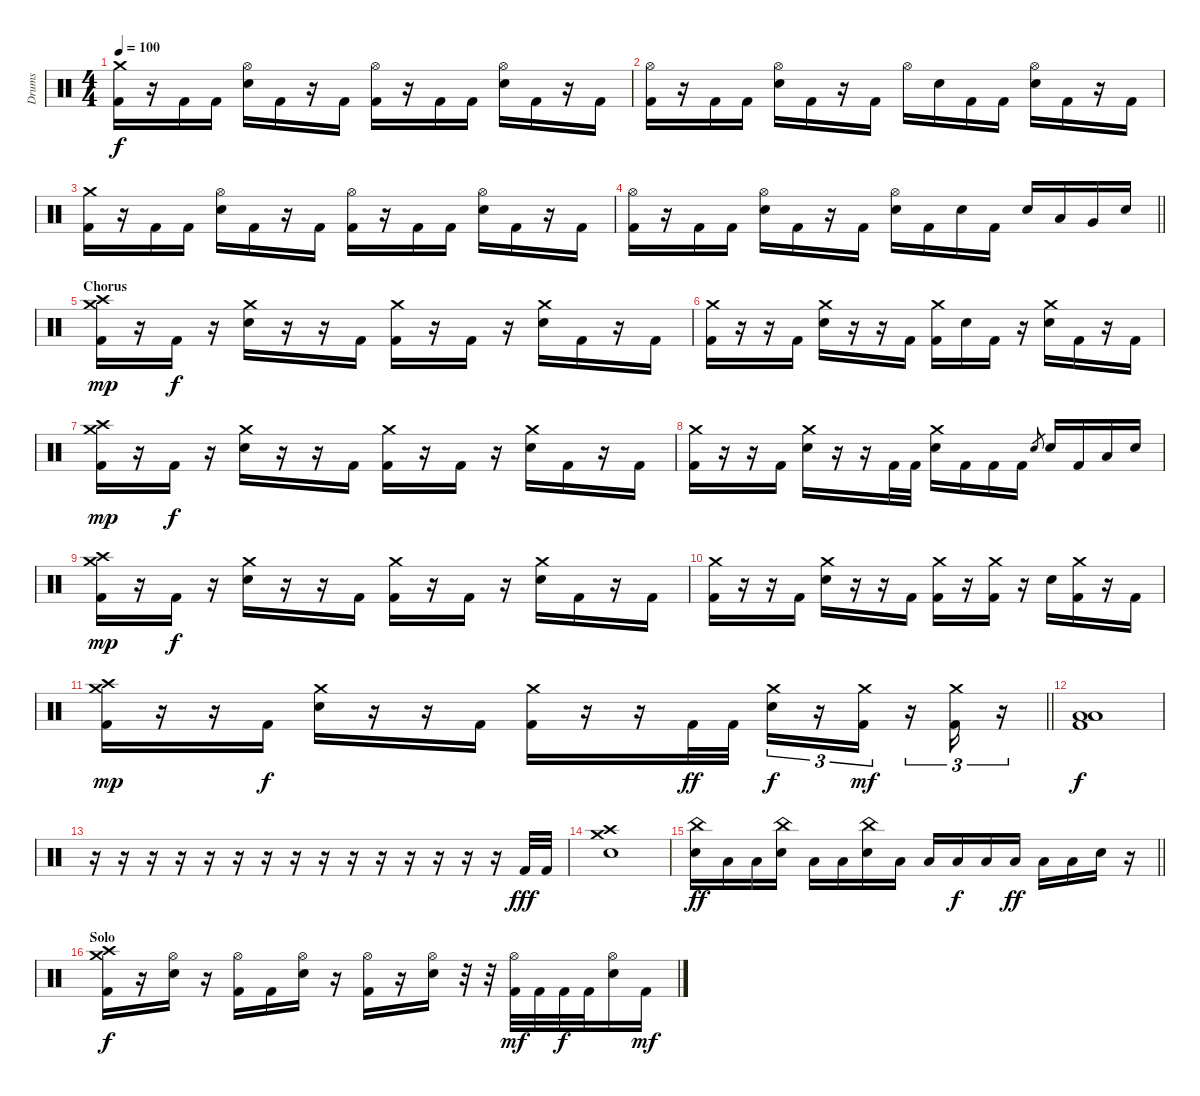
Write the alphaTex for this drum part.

\track ("Drums" "Drums") {instrument percussion}
\staff {score}
\articulation defaults
\ts (4 4)
\tempo 100
\clef neutral
\ks c
("Crash medium (hit)" "Kick (hit) 2").16{dy f} r.16 "Kick (hit) 2".16 "Kick (hit) 2".16 ("Hi-Hat (open)" "Electric Snare (hit)").16 "Kick (hit) 2".16 r.16 "Kick (hit) 2".16 ("Hi-Hat (open)" "Kick (hit) 2").16 r.16 "Kick (hit) 2".16 "Kick (hit) 2".16 ("Hi-Hat (open)" "Electric Snare (hit)").16 "Kick (hit) 2".16 r.16 "Kick (hit) 2".16 |
("Hi-Hat (open)" "Kick (hit) 2").16 r.16 "Kick (hit) 2".16 "Kick (hit) 2".16 ("Hi-Hat (open)" "Electric Snare (hit)").16 "Kick (hit) 2".16 r.16 "Kick (hit) 2".16 "Hi-Hat (open)".16 "Electric Snare (hit)".16 "Kick (hit) 2".16 "Kick (hit) 2".16 ("Hi-Hat (open)" "Electric Snare (hit)").16 "Kick (hit) 2".16 r.16 "Kick (hit) 2".16 |
("Crash medium (hit)" "Kick (hit) 2").16 r.16 "Kick (hit) 2".16 "Kick (hit) 2".16 ("Hi-Hat (open)" "Electric Snare (hit)").16 "Kick (hit) 2".16 r.16 "Kick (hit) 2".16 ("Hi-Hat (open)" "Kick (hit) 2").16 r.16 "Kick (hit) 2".16 "Kick (hit) 2".16 ("Hi-Hat (open)" "Electric Snare (hit)").16 "Kick (hit) 2".16 r.16 "Kick (hit) 2".16 |
\barLineRight lightlight
("Hi-Hat (open)" "Kick (hit) 2").16 r.16 "Kick (hit) 2".16 "Kick (hit) 2".16 ("Hi-Hat (open)" "Electric Snare (hit)").16 "Kick (hit) 2".16 r.16 "Kick (hit) 2".16 ("Hi-Hat (open)" "Electric Snare (hit)").16 "Kick (hit) 2".16 "Electric Snare (hit)".16 "Kick (hit) 2".16 "Electric Snare (hit)".16 "Low Tom (hit)".16 "Very Low Tom (hit)".16 "Electric Snare (hit)".16 |
\section ("" "Chorus")
("Crash high (hit)" "Crash medium (hit)" "Kick (hit) 2").16{dy mp} r.16 "Kick (hit) 2".16{dy f} r.16 ("Crash medium (hit)" "Electric Snare (hit)").16 r.16 r.16 "Kick (hit) 2".16 ("Crash medium (hit)" "Kick (hit) 2").16 r.16 "Kick (hit) 2".16 r.16 ("Crash medium (hit)" "Electric Snare (hit)").16 "Kick (hit) 2".16 r.16 "Kick (hit) 2".16 |
("Crash medium (hit)" "Kick (hit) 2").16 r.16 r.16 "Kick (hit) 2".16 ("Crash medium (hit)" "Electric Snare (hit)").16 r.16 r.16 "Kick (hit) 2".16 ("Crash medium (hit)" "Kick (hit) 2").16 "Electric Snare (hit)".16 "Kick (hit) 2".16 r.16 ("Crash medium (hit)" "Electric Snare (hit)").16 "Kick (hit) 2".16 r.16 "Kick (hit) 2".16 |
("Crash high (hit)" "Crash medium (hit)" "Kick (hit) 2").16{dy mp} r.16 "Kick (hit) 2".16{dy f} r.16 ("Crash medium (hit)" "Electric Snare (hit)").16 r.16 r.16 "Kick (hit) 2".16 ("Crash medium (hit)" "Kick (hit) 2").16 r.16 "Kick (hit) 2".16 r.16 ("Crash medium (hit)" "Electric Snare (hit)").16 "Kick (hit) 2".16 r.16 "Kick (hit) 2".16 |
("Crash medium (hit)" "Kick (hit) 2").16 r.16 r.16 "Kick (hit) 2".16 ("Crash medium (hit)" "Electric Snare (hit)").16 r.16 r.16 "Kick (hit) 2".32 "Kick (hit) 2".32 ("Crash medium (hit)" "Electric Snare (hit)").16 "Kick (hit) 2".16 "Kick (hit) 2".16 "Kick (hit) 2".16 "Electric Snare (hit)".8{gr} "Electric Snare (hit)".16 "Kick (hit) 2".16 "Low Tom (hit)".16 "Electric Snare (hit)".16 |
("Crash high (hit)" "Crash medium (hit)" "Kick (hit) 2").16{dy mp} r.16 "Kick (hit) 2".16{dy f} r.16 ("Crash medium (hit)" "Electric Snare (hit)").16 r.16 r.16 "Kick (hit) 2".16 ("Crash medium (hit)" "Kick (hit) 2").16 r.16 "Kick (hit) 2".16 r.16 ("Crash medium (hit)" "Electric Snare (hit)").16 "Kick (hit) 2".16 r.16 "Kick (hit) 2".16 |
("Crash medium (hit)" "Kick (hit) 2").16 r.16 r.16 "Kick (hit) 2".16 ("Crash medium (hit)" "Electric Snare (hit)").16 r.16 r.16 "Kick (hit) 2".16 ("Crash medium (hit)" "Kick (hit) 2").16 r.16 ("Crash medium (hit)" "Kick (hit) 2").16 r.16 "Electric Snare (hit)".16 ("Crash medium (hit)" "Kick (hit) 2").16 r.16 "Kick (hit) 2".16 |
\barLineRight lightlight
("Crash high (hit)" "Crash medium (hit)" "Kick (hit) 2").16{dy mp} r.16 r.16 "Kick (hit) 2".16{dy f} ("Crash medium (hit)" "Electric Snare (hit)").16 r.16 r.16 "Kick (hit) 2".16 ("Crash medium (hit)" "Kick (hit) 2").16 r.16 r.16 "Kick (hit) 2".32{dy ff} "Kick (hit) 2".32 ("Crash medium (hit)" "Electric Snare (hit)").16{tu (3 2) dy f} r.16{tu (3 2)} ("Crash medium (hit)" "Kick (hit) 2").16{tu (3 2) dy mf} r.16{tu (3 2)} ("Crash medium (hit)" "Kick (hit) 2").16{tu (3 2)} r.16{tu (3 2)} |
\section ("" "")
("Low Tom (hit)" "Low Floor Tom (hit)" "Kick (hit) 2").1{dy f} |
r.16 r.16 r.16 r.16 r.16 r.16 r.16 r.16 r.16 r.16 r.16 r.16 r.16 r.16 r.16 "Kick (hit) 2".32{dy fff} "Kick (hit) 2".32 |
("Crash high (hit)" "Crash medium (hit)" "Electric Snare (hit)").1 |
\barLineRight lightlight
("China (hit)" "Electric Snare (hit)").16{dy ff} "Low Tom (hit)".16 "Low Tom (hit)".16 ("China (hit)" "Electric Snare (hit)").16 "Low Tom (hit)".16 "Low Tom (hit)".16 ("China (hit)" "Electric Snare (hit)").16 "Low Tom (hit)".16 "Low Tom (hit)".16 "Low Tom (hit)".16{dy f} "Low Tom (hit)".16 "Low Tom (hit)".16{dy ff} "Low Tom (hit)".16 "Low Tom (hit)".16 "Electric Snare (hit)".16 r.16 |
\section ("" "Solo")
("Crash high (hit)" "Crash medium (hit)" "Kick (hit) 2").16{dy f} r.16 ("Hi-Hat (open)" "Electric Snare (hit)").16 r.16 ("Hi-Hat (open)" "Kick (hit) 2").16 "Kick (hit) 2".16 ("Hi-Hat (open)" "Electric Snare (hit)").16 r.16 ("Hi-Hat (open)" "Kick (hit) 2").16 r.16 ("Hi-Hat (open)" "Electric Snare (hit)").16 r.32 r.32 ("Hi-Hat (open)" "Kick (hit) 2").32{dy mf} "Kick (hit) 2".32 "Kick (hit) 2".32{dy f} "Kick (hit) 2".32 ("Hi-Hat (open)" "Electric Snare (hit)").16 "Kick (hit) 2".16{dy mf}
